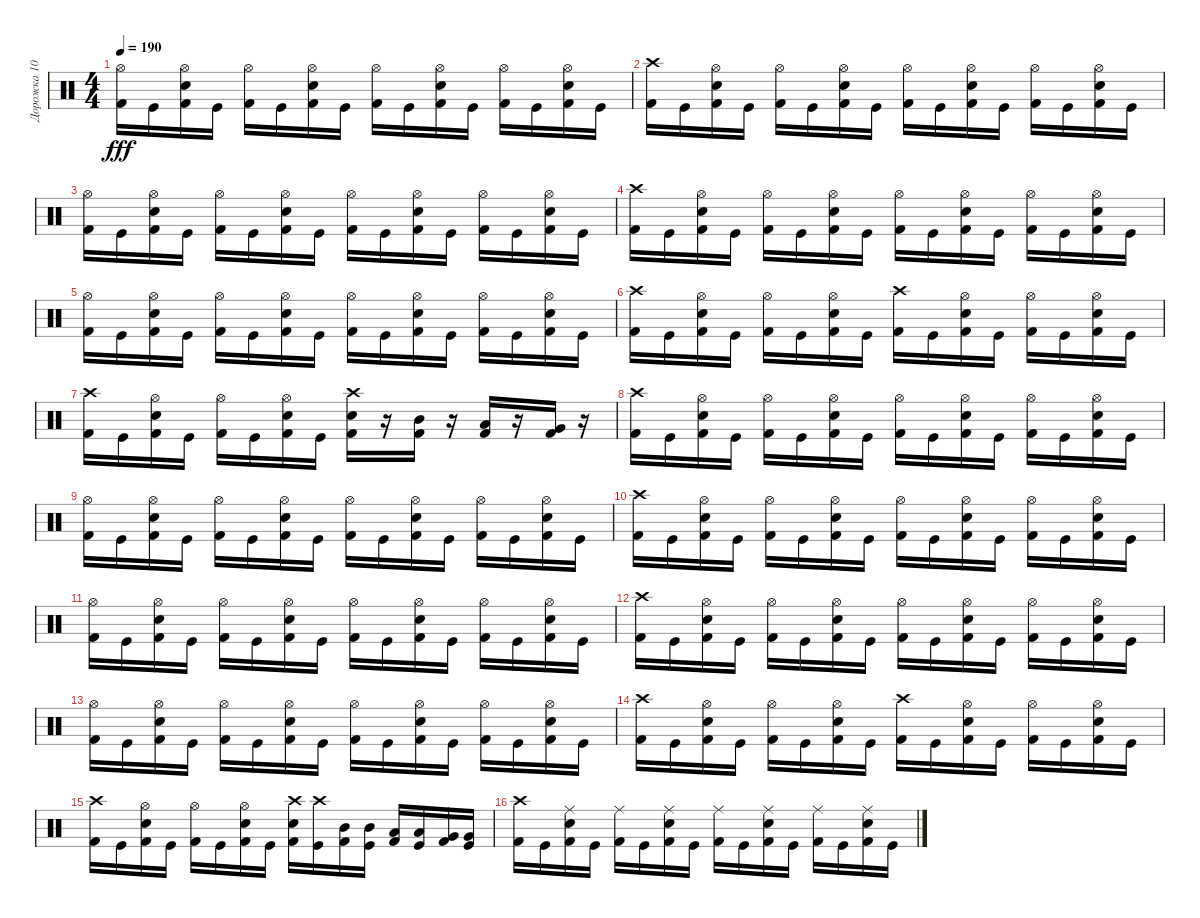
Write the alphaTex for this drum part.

\track ("Дорожка 10" "Дорожка 10") {instrument percussion}
\staff {score}
\articulation defaults
\ts (4 4)
\tempo 190
\clef neutral
\ks c
("Hi-Hat (open)" "Kick (hit) 2").16{dy fff} "Kick (hit)".16 ("Kick (hit) 2" "Electric Snare (hit)" "Hi-Hat (open)").16 "Kick (hit)".16 ("Hi-Hat (open)" "Kick (hit) 2").16 "Kick (hit)".16 ("Hi-Hat (open)" "Electric Snare (hit)" "Kick (hit) 2").16 "Kick (hit)".16 ("Kick (hit) 2" "Hi-Hat (open)").16 "Kick (hit)".16 ("Electric Snare (hit)" "Kick (hit) 2" "Hi-Hat (open)").16 "Kick (hit)".16 ("Kick (hit) 2" "Hi-Hat (open)").16 "Kick (hit)".16 ("Kick (hit) 2" "Electric Snare (hit)" "Hi-Hat (open)").16 "Kick (hit)".16 |
("Crash high (hit)" "Kick (hit) 2").16 "Kick (hit)".16 ("Hi-Hat (open)" "Electric Snare (hit)" "Kick (hit) 2").16 "Kick (hit)".16 ("Hi-Hat (open)" "Kick (hit) 2").16 "Kick (hit)".16 ("Electric Snare (hit)" "Hi-Hat (open)" "Kick (hit) 2").16 "Kick (hit)".16 ("Kick (hit) 2" "Hi-Hat (open)").16 "Kick (hit)".16 ("Hi-Hat (open)" "Kick (hit) 2" "Electric Snare (hit)").16 "Kick (hit)".16 ("Hi-Hat (open)" "Kick (hit) 2").16 "Kick (hit)".16 ("Electric Snare (hit)" "Hi-Hat (open)" "Kick (hit) 2").16 "Kick (hit)".16 |
("Hi-Hat (open)" "Kick (hit) 2").16 "Kick (hit)".16 ("Hi-Hat (open)" "Electric Snare (hit)" "Kick (hit) 2").16 "Kick (hit)".16 ("Kick (hit) 2" "Hi-Hat (open)").16 "Kick (hit)".16 ("Electric Snare (hit)" "Kick (hit) 2" "Hi-Hat (open)").16 "Kick (hit)".16 ("Kick (hit) 2" "Hi-Hat (open)").16 "Kick (hit)".16 ("Kick (hit) 2" "Hi-Hat (open)" "Electric Snare (hit)").16 "Kick (hit)".16 ("Kick (hit) 2" "Hi-Hat (open)").16 "Kick (hit)".16 ("Electric Snare (hit)" "Hi-Hat (open)" "Kick (hit) 2").16 "Kick (hit)".16 |
("Crash high (hit)" "Kick (hit) 2").16 "Kick (hit)".16 ("Electric Snare (hit)" "Hi-Hat (open)" "Kick (hit) 2").16 "Kick (hit)".16 ("Kick (hit) 2" "Hi-Hat (open)").16 "Kick (hit)".16 ("Hi-Hat (open)" "Electric Snare (hit)" "Kick (hit) 2").16 "Kick (hit)".16 ("Hi-Hat (open)" "Kick (hit) 2").16 "Kick (hit)".16 ("Kick (hit) 2" "Electric Snare (hit)" "Hi-Hat (open)").16 "Kick (hit)".16 ("Kick (hit) 2" "Hi-Hat (open)").16 "Kick (hit)".16 ("Hi-Hat (open)" "Kick (hit) 2" "Electric Snare (hit)").16 "Kick (hit)".16 |
("Kick (hit) 2" "Hi-Hat (open)").16 "Kick (hit)".16 ("Kick (hit) 2" "Hi-Hat (open)" "Electric Snare (hit)").16 "Kick (hit)".16 ("Kick (hit) 2" "Hi-Hat (open)").16 "Kick (hit)".16 ("Electric Snare (hit)" "Kick (hit) 2" "Hi-Hat (open)").16 "Kick (hit)".16 ("Hi-Hat (open)" "Kick (hit) 2").16 "Kick (hit)".16 ("Hi-Hat (open)" "Electric Snare (hit)" "Kick (hit) 2").16 "Kick (hit)".16 ("Kick (hit) 2" "Hi-Hat (open)").16 "Kick (hit)".16 ("Hi-Hat (open)" "Electric Snare (hit)" "Kick (hit) 2").16 "Kick (hit)".16 |
("Crash high (hit)" "Kick (hit) 2").16 "Kick (hit)".16 ("Kick (hit) 2" "Electric Snare (hit)" "Hi-Hat (open)").16 "Kick (hit)".16 ("Hi-Hat (open)" "Kick (hit) 2").16 "Kick (hit)".16 ("Hi-Hat (open)" "Electric Snare (hit)" "Kick (hit) 2").16 "Kick (hit)".16 ("Crash high (hit)" "Kick (hit) 2").16 "Kick (hit)".16 ("Electric Snare (hit)" "Kick (hit) 2" "Hi-Hat (open)").16 "Kick (hit)".16 ("Hi-Hat (open)" "Kick (hit) 2").16 "Kick (hit)".16 ("Hi-Hat (open)" "Electric Snare (hit)" "Kick (hit) 2").16 "Kick (hit)".16 |
("Kick (hit) 2" "Crash high (hit)").16 "Kick (hit)".16 ("Hi-Hat (open)" "Kick (hit) 2" "Electric Snare (hit)").16 "Kick (hit)".16 ("Kick (hit) 2" "Hi-Hat (open)").16 "Kick (hit)".16 ("Hi-Hat (open)" "Electric Snare (hit)" "Kick (hit) 2").16 "Kick (hit)".16 ("Crash high (hit)" "Kick (hit) 2" "Electric Snare (hit)").16 r.16 ("Mid Tom (hit)" "Kick (hit) 2").16 r.16 ("Low Tom (hit)" "Kick (hit) 2").16 r.16 ("Very Low Tom (hit)" "Kick (hit) 2").16 r.16 |
("Crash high (hit)" "Kick (hit) 2").16 "Kick (hit)".16 ("Kick (hit) 2" "Electric Snare (hit)" "Hi-Hat (open)").16 "Kick (hit)".16 ("Hi-Hat (open)" "Kick (hit) 2").16 "Kick (hit)".16 ("Kick (hit) 2" "Hi-Hat (open)" "Electric Snare (hit)").16 "Kick (hit)".16 ("Hi-Hat (open)" "Kick (hit) 2").16 "Kick (hit)".16 ("Hi-Hat (open)" "Kick (hit) 2" "Electric Snare (hit)").16 "Kick (hit)".16 ("Hi-Hat (open)" "Kick (hit) 2").16 "Kick (hit)".16 ("Kick (hit) 2" "Hi-Hat (open)" "Electric Snare (hit)").16 "Kick (hit)".16 |
("Kick (hit) 2" "Hi-Hat (open)").16 "Kick (hit)".16 ("Kick (hit) 2" "Electric Snare (hit)" "Hi-Hat (open)").16 "Kick (hit)".16 ("Hi-Hat (open)" "Kick (hit) 2").16 "Kick (hit)".16 ("Hi-Hat (open)" "Electric Snare (hit)" "Kick (hit) 2").16 "Kick (hit)".16 ("Kick (hit) 2" "Hi-Hat (open)").16 "Kick (hit)".16 ("Kick (hit) 2" "Hi-Hat (open)" "Electric Snare (hit)").16 "Kick (hit)".16 ("Kick (hit) 2" "Hi-Hat (open)").16 "Kick (hit)".16 ("Kick (hit) 2" "Electric Snare (hit)" "Hi-Hat (open)").16 "Kick (hit)".16 |
("Crash high (hit)" "Kick (hit) 2").16 "Kick (hit)".16 ("Kick (hit) 2" "Hi-Hat (open)" "Electric Snare (hit)").16 "Kick (hit)".16 ("Hi-Hat (open)" "Kick (hit) 2").16 "Kick (hit)".16 ("Electric Snare (hit)" "Hi-Hat (open)" "Kick (hit) 2").16 "Kick (hit)".16 ("Kick (hit) 2" "Hi-Hat (open)").16 "Kick (hit)".16 ("Hi-Hat (open)" "Kick (hit) 2" "Electric Snare (hit)").16 "Kick (hit)".16 ("Kick (hit) 2" "Hi-Hat (open)").16 "Kick (hit)".16 ("Hi-Hat (open)" "Electric Snare (hit)" "Kick (hit) 2").16 "Kick (hit)".16 |
("Kick (hit) 2" "Hi-Hat (open)").16 "Kick (hit)".16 ("Electric Snare (hit)" "Hi-Hat (open)" "Kick (hit) 2").16 "Kick (hit)".16 ("Kick (hit) 2" "Hi-Hat (open)").16 "Kick (hit)".16 ("Electric Snare (hit)" "Kick (hit) 2" "Hi-Hat (open)").16 "Kick (hit)".16 ("Hi-Hat (open)" "Kick (hit) 2").16 "Kick (hit)".16 ("Hi-Hat (open)" "Kick (hit) 2" "Electric Snare (hit)").16 "Kick (hit)".16 ("Kick (hit) 2" "Hi-Hat (open)").16 "Kick (hit)".16 ("Hi-Hat (open)" "Kick (hit) 2" "Electric Snare (hit)").16 "Kick (hit)".16 |
("Crash high (hit)" "Kick (hit) 2").16 "Kick (hit)".16 ("Electric Snare (hit)" "Hi-Hat (open)" "Kick (hit) 2").16 "Kick (hit)".16 ("Hi-Hat (open)" "Kick (hit) 2").16 "Kick (hit)".16 ("Kick (hit) 2" "Electric Snare (hit)" "Hi-Hat (open)").16 "Kick (hit)".16 ("Hi-Hat (open)" "Kick (hit) 2").16 "Kick (hit)".16 ("Electric Snare (hit)" "Hi-Hat (open)" "Kick (hit) 2").16 "Kick (hit)".16 ("Kick (hit) 2" "Hi-Hat (open)").16 "Kick (hit)".16 ("Electric Snare (hit)" "Hi-Hat (open)" "Kick (hit) 2").16 "Kick (hit)".16 |
("Hi-Hat (open)" "Kick (hit) 2").16 "Kick (hit)".16 ("Electric Snare (hit)" "Kick (hit) 2" "Hi-Hat (open)").16 "Kick (hit)".16 ("Hi-Hat (open)" "Kick (hit) 2").16 "Kick (hit)".16 ("Hi-Hat (open)" "Kick (hit) 2" "Electric Snare (hit)").16 "Kick (hit)".16 ("Kick (hit) 2" "Hi-Hat (open)").16 "Kick (hit)".16 ("Kick (hit) 2" "Hi-Hat (open)" "Electric Snare (hit)").16 "Kick (hit)".16 ("Kick (hit) 2" "Hi-Hat (open)").16 "Kick (hit)".16 ("Kick (hit) 2" "Electric Snare (hit)" "Hi-Hat (open)").16 "Kick (hit)".16 |
("Crash high (hit)" "Kick (hit) 2").16 "Kick (hit)".16 ("Hi-Hat (open)" "Electric Snare (hit)" "Kick (hit) 2").16 "Kick (hit)".16 ("Kick (hit) 2" "Hi-Hat (open)").16 "Kick (hit)".16 ("Kick (hit) 2" "Hi-Hat (open)" "Electric Snare (hit)").16 "Kick (hit)".16 ("Kick (hit) 2" "Crash high (hit)").16 "Kick (hit)".16 ("Electric Snare (hit)" "Kick (hit) 2" "Hi-Hat (open)").16 "Kick (hit)".16 ("Hi-Hat (open)" "Kick (hit) 2").16 "Kick (hit)".16 ("Kick (hit) 2" "Hi-Hat (open)" "Electric Snare (hit)").16 "Kick (hit)".16 |
("Kick (hit) 2" "Crash high (hit)").16 "Kick (hit)".16 ("Hi-Hat (open)" "Electric Snare (hit)" "Kick (hit) 2").16 "Kick (hit)".16 ("Kick (hit) 2" "Hi-Hat (open)").16 "Kick (hit)".16 ("Hi-Hat (open)" "Kick (hit) 2" "Electric Snare (hit)").16 "Kick (hit)".16 ("Kick (hit) 2" "Electric Snare (hit)" "Crash high (hit)").16 ("Kick (hit)" "Crash high (hit)").16 ("Kick (hit) 2" "Mid Tom (hit)").16 ("Mid Tom (hit)" "Kick (hit)").16 ("Kick (hit) 2" "Low Tom (hit)").16 ("Kick (hit)" "Low Tom (hit)").16 ("Kick (hit) 2" "Very Low Tom (hit)").16 ("Very Low Tom (hit)" "Kick (hit)").16 |
("Kick (hit) 2" "Crash high (hit)").16 "Kick (hit)".16 ("Ride (middle)" "Electric Snare (hit)" "Kick (hit) 2").16 "Kick (hit)".16 ("Ride (middle)" "Kick (hit) 2").16 "Kick (hit)".16 ("Ride (middle)" "Kick (hit) 2" "Electric Snare (hit)").16 "Kick (hit)".16 ("Kick (hit) 2" "Ride (middle)").16 "Kick (hit)".16 ("Electric Snare (hit)" "Ride (middle)" "Kick (hit) 2").16 "Kick (hit)".16 ("Kick (hit) 2" "Ride (middle)").16 "Kick (hit)".16 ("Kick (hit) 2" "Electric Snare (hit)" "Ride (middle)").16 "Kick (hit)".16
